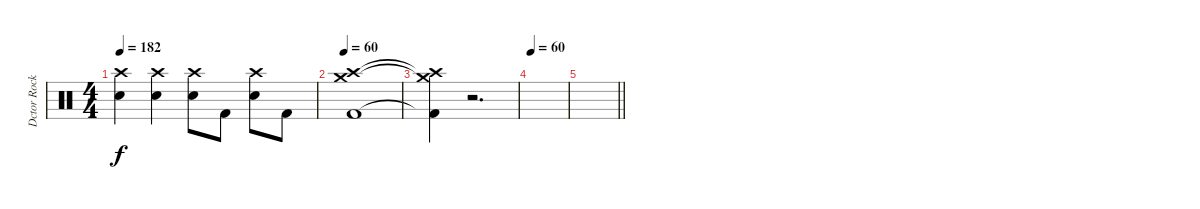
\track ("Dctor Rock" "Dctor Rock") {instrument percussion}
\staff {score}
\articulation defaults
\ts (4 4)
\tempo 182
\clef neutral
\ks c
("Crash high (hit)" "Snare (hit) 2").4{dy f} ("Crash high (hit)" "Snare (hit) 2").4 ("Crash high (hit)" "Snare (hit) 2").8 "Kick (hit) 2".8 ("Crash high (hit)" "Snare (hit) 2").8 "Kick (hit) 2".8 |
\tempo 60
("Crash high (hit)" "Crash medium (hit)" "Kick (hit) 2").1 |
("Crash high (hit)"{t} "Crash medium (hit)"{t} "Kick (hit) 2"{t}).4 r.2{d} |
\tempo 60
|
\barLineRight lightlight
